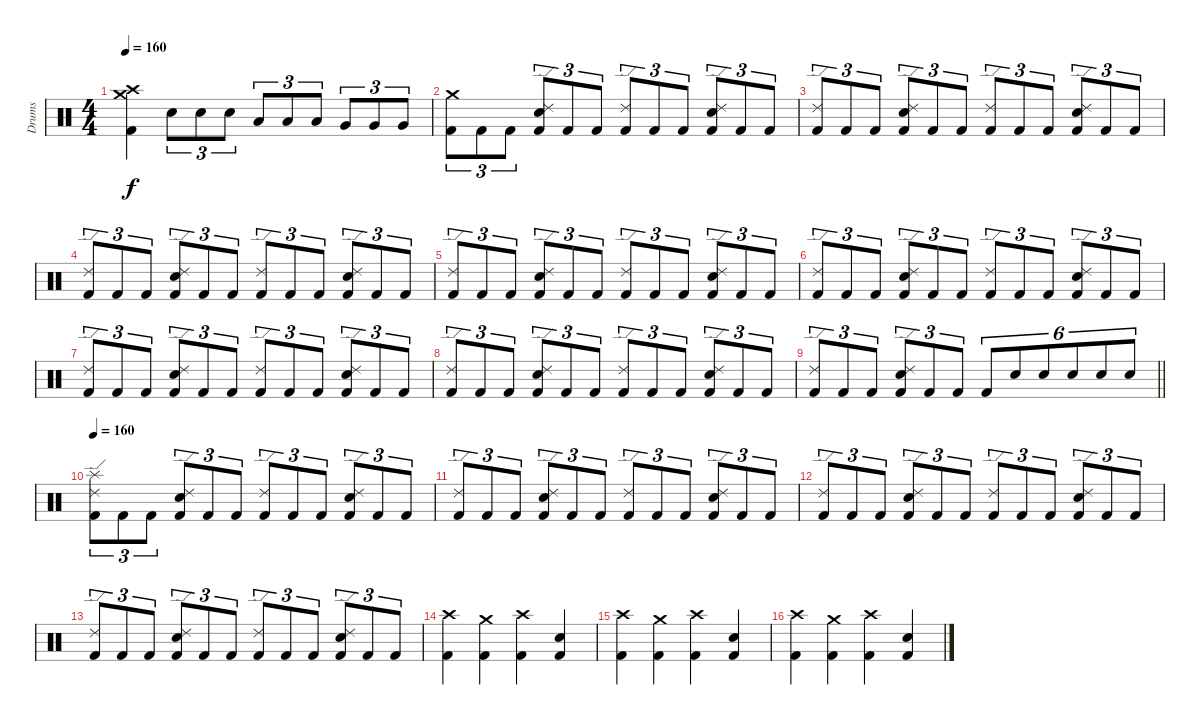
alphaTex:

\track ("Drums" "Drums") {instrument percussion}
\staff {score}
\articulation defaults
\ts (4 4)
\tempo 160
\clef neutral
\ks c
("Crash high (hit)" "Crash medium (hit)" "Kick (hit) 2").4{dy f} "Snare (hit) 2".8{tu (3 2)} "Snare (hit) 2".8{tu (3 2)} "Snare (hit) 2".8{tu (3 2)} "Low Tom (hit)".8{tu (3 2)} "Low Tom (hit)".8{tu (3 2)} "Low Tom (hit)".8{tu (3 2)} "Very Low Tom (hit)".8{tu (3 2)} "Very Low Tom (hit)".8{tu (3 2)} "Very Low Tom (hit)".8{tu (3 2)} |
("Crash medium (hit)" "Kick (hit) 2").8{tu (3 2)} "Kick (hit) 2".8{tu (3 2)} "Kick (hit) 2".8{tu (3 2)} ("Ride (edge) 2" "Snare (hit) 2" "Kick (hit) 2").8{tu (3 2)} "Kick (hit) 2".8{tu (3 2)} "Kick (hit) 2".8{tu (3 2)} ("Ride (edge) 2" "Kick (hit) 2").8{tu (3 2)} "Kick (hit) 2".8{tu (3 2)} "Kick (hit) 2".8{tu (3 2)} ("Ride (edge) 2" "Snare (hit) 2" "Kick (hit) 2").8{tu (3 2)} "Kick (hit) 2".8{tu (3 2)} "Kick (hit) 2".8{tu (3 2)} |
("Ride (edge) 2" "Kick (hit) 2").8{tu (3 2)} "Kick (hit) 2".8{tu (3 2)} "Kick (hit) 2".8{tu (3 2)} ("Ride (edge) 2" "Snare (hit) 2" "Kick (hit) 2").8{tu (3 2)} "Kick (hit) 2".8{tu (3 2)} "Kick (hit) 2".8{tu (3 2)} ("Ride (edge) 2" "Kick (hit) 2").8{tu (3 2)} "Kick (hit) 2".8{tu (3 2)} "Kick (hit) 2".8{tu (3 2)} ("Ride (edge) 2" "Snare (hit) 2" "Kick (hit) 2").8{tu (3 2)} "Kick (hit) 2".8{tu (3 2)} "Kick (hit) 2".8{tu (3 2)} |
("Ride (edge) 2" "Kick (hit) 2").8{tu (3 2)} "Kick (hit) 2".8{tu (3 2)} "Kick (hit) 2".8{tu (3 2)} ("Ride (edge) 2" "Snare (hit) 2" "Kick (hit) 2").8{tu (3 2)} "Kick (hit) 2".8{tu (3 2)} "Kick (hit) 2".8{tu (3 2)} ("Ride (edge) 2" "Kick (hit) 2").8{tu (3 2)} "Kick (hit) 2".8{tu (3 2)} "Kick (hit) 2".8{tu (3 2)} ("Ride (edge) 2" "Snare (hit) 2" "Kick (hit) 2").8{tu (3 2)} "Kick (hit) 2".8{tu (3 2)} "Kick (hit) 2".8{tu (3 2)} |
("Ride (edge) 2" "Kick (hit) 2").8{tu (3 2)} "Kick (hit) 2".8{tu (3 2)} "Kick (hit) 2".8{tu (3 2)} ("Ride (edge) 2" "Snare (hit) 2" "Kick (hit) 2").8{tu (3 2)} "Kick (hit) 2".8{tu (3 2)} "Kick (hit) 2".8{tu (3 2)} ("Ride (edge) 2" "Kick (hit) 2").8{tu (3 2)} "Kick (hit) 2".8{tu (3 2)} "Kick (hit) 2".8{tu (3 2)} ("Ride (edge) 2" "Snare (hit) 2" "Kick (hit) 2").8{tu (3 2)} "Kick (hit) 2".8{tu (3 2)} "Kick (hit) 2".8{tu (3 2)} |
("Ride (edge) 2" "Kick (hit) 2").8{tu (3 2)} "Kick (hit) 2".8{tu (3 2)} "Kick (hit) 2".8{tu (3 2)} ("Ride (edge) 2" "Snare (hit) 2" "Kick (hit) 2").8{tu (3 2)} "Kick (hit) 2".8{tu (3 2)} "Kick (hit) 2".8{tu (3 2)} ("Ride (edge) 2" "Kick (hit) 2").8{tu (3 2)} "Kick (hit) 2".8{tu (3 2)} "Kick (hit) 2".8{tu (3 2)} ("Ride (edge) 2" "Snare (hit) 2" "Kick (hit) 2").8{tu (3 2)} "Kick (hit) 2".8{tu (3 2)} "Kick (hit) 2".8{tu (3 2)} |
("Ride (edge) 2" "Kick (hit) 2").8{tu (3 2)} "Kick (hit) 2".8{tu (3 2)} "Kick (hit) 2".8{tu (3 2)} ("Ride (edge) 2" "Snare (hit) 2" "Kick (hit) 2").8{tu (3 2)} "Kick (hit) 2".8{tu (3 2)} "Kick (hit) 2".8{tu (3 2)} ("Ride (edge) 2" "Kick (hit) 2").8{tu (3 2)} "Kick (hit) 2".8{tu (3 2)} "Kick (hit) 2".8{tu (3 2)} ("Ride (edge) 2" "Snare (hit) 2" "Kick (hit) 2").8{tu (3 2)} "Kick (hit) 2".8{tu (3 2)} "Kick (hit) 2".8{tu (3 2)} |
("Ride (edge) 2" "Kick (hit) 2").8{tu (3 2)} "Kick (hit) 2".8{tu (3 2)} "Kick (hit) 2".8{tu (3 2)} ("Ride (edge) 2" "Snare (hit) 2" "Kick (hit) 2").8{tu (3 2)} "Kick (hit) 2".8{tu (3 2)} "Kick (hit) 2".8{tu (3 2)} ("Ride (edge) 2" "Kick (hit) 2").8{tu (3 2)} "Kick (hit) 2".8{tu (3 2)} "Kick (hit) 2".8{tu (3 2)} ("Ride (edge) 2" "Snare (hit) 2" "Kick (hit) 2").8{tu (3 2)} "Kick (hit) 2".8{tu (3 2)} "Kick (hit) 2".8{tu (3 2)} |
\barLineRight lightlight
("Ride (edge) 2" "Kick (hit) 2").8{tu (3 2)} "Kick (hit) 2".8{tu (3 2)} "Kick (hit) 2".8{tu (3 2)} ("Ride (edge) 2" "Snare (hit) 2" "Kick (hit) 2").8{tu (3 2)} "Kick (hit) 2".8{tu (3 2)} "Kick (hit) 2".8{tu (3 2)} "Kick (hit) 2".8{tu (6 4)} "Snare (hit) 2".8{tu (6 4)} "Snare (hit) 2".8{tu (6 4)} "Snare (hit) 2".8{tu (6 4)} "Snare (hit) 2".8{tu (6 4)} "Snare (hit) 2".8{tu (6 4)} |
\section ("" "")
\tempo 160
("Ride (edge) 2" "Splash (hit)" "Kick (hit) 2").8{tu (3 2)} "Kick (hit) 2".8{tu (3 2)} "Kick (hit) 2".8{tu (3 2)} ("Ride (edge) 2" "Snare (hit) 2" "Kick (hit) 2").8{tu (3 2)} "Kick (hit) 2".8{tu (3 2)} "Kick (hit) 2".8{tu (3 2)} ("Ride (edge) 2" "Kick (hit) 2").8{tu (3 2)} "Kick (hit) 2".8{tu (3 2)} "Kick (hit) 2".8{tu (3 2)} ("Ride (edge) 2" "Snare (hit) 2" "Kick (hit) 2").8{tu (3 2)} "Kick (hit) 2".8{tu (3 2)} "Kick (hit) 2".8{tu (3 2)} |
("Ride (edge) 2" "Kick (hit) 2").8{tu (3 2)} "Kick (hit) 2".8{tu (3 2)} "Kick (hit) 2".8{tu (3 2)} ("Ride (edge) 2" "Snare (hit) 2" "Kick (hit) 2").8{tu (3 2)} "Kick (hit) 2".8{tu (3 2)} "Kick (hit) 2".8{tu (3 2)} ("Ride (edge) 2" "Kick (hit) 2").8{tu (3 2)} "Kick (hit) 2".8{tu (3 2)} "Kick (hit) 2".8{tu (3 2)} ("Ride (edge) 2" "Snare (hit) 2" "Kick (hit) 2").8{tu (3 2)} "Kick (hit) 2".8{tu (3 2)} "Kick (hit) 2".8{tu (3 2)} |
("Ride (edge) 2" "Kick (hit) 2").8{tu (3 2)} "Kick (hit) 2".8{tu (3 2)} "Kick (hit) 2".8{tu (3 2)} ("Ride (edge) 2" "Snare (hit) 2" "Kick (hit) 2").8{tu (3 2)} "Kick (hit) 2".8{tu (3 2)} "Kick (hit) 2".8{tu (3 2)} ("Ride (edge) 2" "Kick (hit) 2").8{tu (3 2)} "Kick (hit) 2".8{tu (3 2)} "Kick (hit) 2".8{tu (3 2)} ("Ride (edge) 2" "Snare (hit) 2" "Kick (hit) 2").8{tu (3 2)} "Kick (hit) 2".8{tu (3 2)} "Kick (hit) 2".8{tu (3 2)} |
("Ride (edge) 2" "Kick (hit) 2").8{tu (3 2)} "Kick (hit) 2".8{tu (3 2)} "Kick (hit) 2".8{tu (3 2)} ("Ride (edge) 2" "Snare (hit) 2" "Kick (hit) 2").8{tu (3 2)} "Kick (hit) 2".8{tu (3 2)} "Kick (hit) 2".8{tu (3 2)} ("Ride (edge) 2" "Kick (hit) 2").8{tu (3 2)} "Kick (hit) 2".8{tu (3 2)} "Kick (hit) 2".8{tu (3 2)} ("Ride (edge) 2" "Snare (hit) 2" "Kick (hit) 2").8{tu (3 2)} "Kick (hit) 2".8{tu (3 2)} "Kick (hit) 2".8{tu (3 2)} |
("Crash high (hit)" "Kick (hit) 2").4 ("Crash medium (hit)" "Kick (hit) 2").4 ("Crash high (hit)" "Kick (hit) 2").4 ("Electric Snare (hit)" "Kick (hit) 2").4 |
("Crash high (hit)" "Kick (hit) 2").4 ("Crash medium (hit)" "Kick (hit) 2").4 ("Crash high (hit)" "Kick (hit) 2").4 ("Electric Snare (hit)" "Kick (hit) 2").4 |
("Crash high (hit)" "Kick (hit) 2").4 ("Crash medium (hit)" "Kick (hit) 2").4 ("Crash high (hit)" "Kick (hit) 2").4 ("Electric Snare (hit)" "Kick (hit) 2").4
